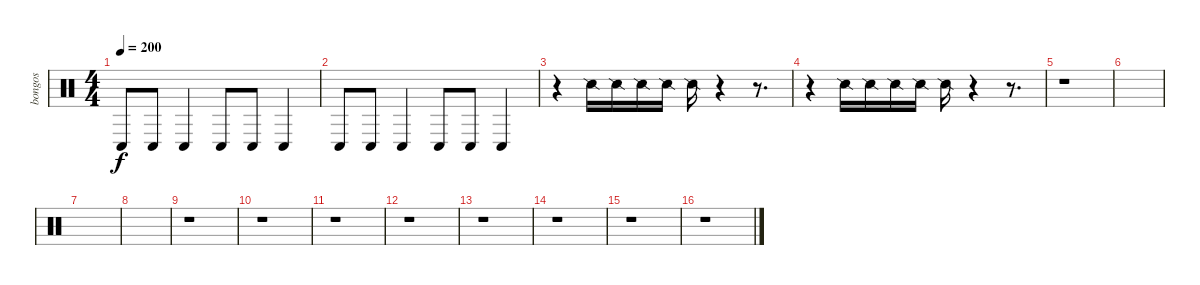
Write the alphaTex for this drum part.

\track ("bongos" "bongos") {instrument percussion}
\staff {score}
\articulation defaults
\ts (4 4)
\tempo 200
\clef neutral
\ks c "Conga low (hit)".8{dy f} "Conga low (hit)".8 "Conga low (hit)".4 "Conga low (hit)".8 "Conga low (hit)".8 "Conga low (hit)".4
|
"Conga low (hit)".8 "Conga low (hit)".8 "Conga low (hit)".4 "Conga low (hit)".8 "Conga low (hit)".8 "Conga low (hit)".4 |
r.4 "Snare (side stick) 2".16 "Snare (side stick) 2".16 "Snare (side stick) 2".16 "Snare (side stick) 2".16 "Snare (side stick) 2".16 r.4 r.8{d} |
r.4 "Snare (side stick) 2".16 "Snare (side stick) 2".16 "Snare (side stick) 2".16 "Snare (side stick) 2".16 "Snare (side stick) 2".16 r.4 r.8{d} |
r.1 |
|
|
|
r.1 |
r.1 |
r.1 |
r.1 |
r.1 |
r.1 |
r.1 |
r.1
